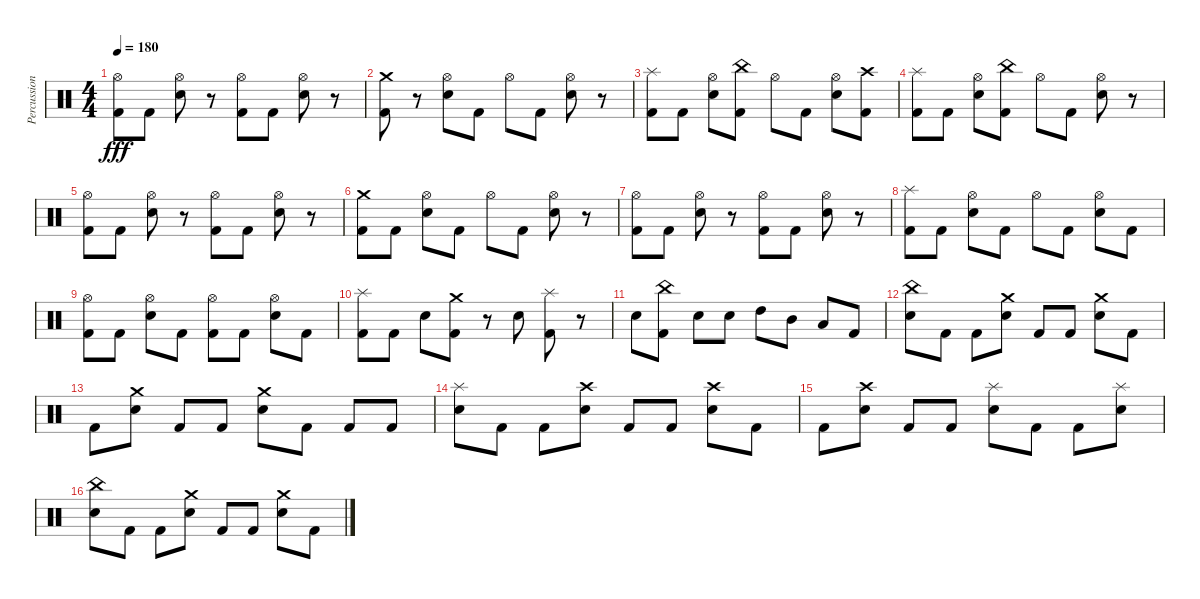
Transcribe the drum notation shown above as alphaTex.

\track ("Percussion" "Percussion") {instrument percussion}
\staff {score}
\articulation defaults
\ts (4 4)
\tempo 180
\clef neutral
\ks c
("Hi-Hat (open)" "Kick (hit) 2").8{dy fff} "Kick (hit) 2".8 ("Hi-Hat (open)" "Snare (hit) 2").8 r.8 ("Hi-Hat (open)" "Kick (hit) 2").8 "Kick (hit) 2".8 ("Hi-Hat (open)" "Snare (hit) 2").8 r.8 |
("Kick (hit) 2" "Crash medium (hit)").8 r.8 ("Hi-Hat (open)" "Snare (hit) 2").8 "Kick (hit) 2".8 "Hi-Hat (open)".8 "Kick (hit) 2".8 ("Hi-Hat (open)" "Snare (hit) 2").8 r.8 |
("Kick (hit) 2" "Splash (hit)").8 "Kick (hit) 2".8 ("Hi-Hat (open)" "Snare (hit) 2").8 ("Kick (hit) 2" "China (hit)").8 "Hi-Hat (open)".8 "Kick (hit) 2".8 ("Hi-Hat (open)" "Snare (hit) 2").8 ("Kick (hit) 2" "Crash high (hit)").8 |
("Kick (hit) 2" "Splash (hit)").8 "Kick (hit) 2".8 ("Hi-Hat (open)" "Snare (hit) 2").8 ("Kick (hit) 2" "China (hit)").8 "Hi-Hat (open)".8 "Kick (hit) 2".8 ("Hi-Hat (open)" "Snare (hit) 2").8 r.8 |
("Hi-Hat (open)" "Kick (hit) 2").8 "Kick (hit) 2".8 ("Hi-Hat (open)" "Snare (hit) 2").8 r.8 ("Hi-Hat (open)" "Kick (hit) 2").8 "Kick (hit) 2".8 ("Hi-Hat (open)" "Snare (hit) 2").8 r.8 |
("Kick (hit) 2" "Crash medium (hit)").8 "Kick (hit) 2".8 ("Hi-Hat (open)" "Snare (hit) 2").8 "Kick (hit) 2".8 "Hi-Hat (open)".8 "Kick (hit) 2".8 ("Hi-Hat (open)" "Snare (hit) 2").8 r.8 |
("Hi-Hat (open)" "Kick (hit) 2").8 "Kick (hit) 2".8 ("Hi-Hat (open)" "Snare (hit) 2").8 r.8 ("Hi-Hat (open)" "Kick (hit) 2").8 "Kick (hit) 2".8 ("Hi-Hat (open)" "Snare (hit) 2").8 r.8 |
("Kick (hit) 2" "Splash (hit)").8 "Kick (hit) 2".8 ("Hi-Hat (open)" "Snare (hit) 2").8 "Kick (hit) 2".8 "Hi-Hat (open)".8 "Kick (hit) 2".8 ("Hi-Hat (open)" "Snare (hit) 2").8 "Kick (hit) 2".8 |
("Hi-Hat (open)" "Kick (hit) 2").8 "Kick (hit) 2".8 ("Hi-Hat (open)" "Snare (hit) 2").8 "Kick (hit) 2".8 ("Hi-Hat (open)" "Kick (hit) 2").8 "Kick (hit) 2".8 ("Hi-Hat (open)" "Snare (hit) 2").8 "Kick (hit) 2".8 |
("Kick (hit) 2" "Splash (hit)").8 "Kick (hit) 2".8 "Snare (hit) 2".8 ("Kick (hit) 2" "Crash medium (hit)").8 r.8 "Snare (hit) 2".8 ("Kick (hit) 2" "Splash (hit)").8 r.8 |
"Snare (hit) 2".8 ("Kick (hit) 2" "China (hit)").8 "Snare (hit) 2".8 "Snare (hit) 2".8 "High Tom (hit)".8 "Mid Tom (hit)".8 "Low Tom (hit)".8 "Kick (hit) 2".8 |
("Snare (hit) 2" "China (hit)").8 "Kick (hit) 2".8 "Kick (hit) 2".8 ("Snare (hit) 2" "Crash medium (hit)").8 "Kick (hit) 2".8 "Kick (hit) 2".8 ("Snare (hit) 2" "Crash medium (hit)").8 "Kick (hit) 2".8 |
"Kick (hit) 2".8 ("Snare (hit) 2" "Crash medium (hit)").8 "Kick (hit) 2".8 "Kick (hit) 2".8 ("Snare (hit) 2" "Crash medium (hit)").8 "Kick (hit) 2".8 "Kick (hit) 2".8 "Kick (hit) 2".8 |
("Snare (hit) 2" "Splash (hit)").8 "Kick (hit) 2".8 "Kick (hit) 2".8 ("Snare (hit) 2" "Crash high (hit)").8 "Kick (hit) 2".8 "Kick (hit) 2".8 ("Snare (hit) 2" "Crash high (hit)").8 "Kick (hit) 2".8 |
"Kick (hit) 2".8 ("Snare (hit) 2" "Crash high (hit)").8 "Kick (hit) 2".8 "Kick (hit) 2".8 ("Snare (hit) 2" "Splash (hit)").8 "Kick (hit) 2".8 "Kick (hit) 2".8 ("Snare (hit) 2" "Splash (hit)").8 |
("Snare (hit) 2" "China (hit)").8 "Kick (hit) 2".8 "Kick (hit) 2".8 ("Snare (hit) 2" "Crash medium (hit)").8 "Kick (hit) 2".8 "Kick (hit) 2".8 ("Snare (hit) 2" "Crash medium (hit)").8 "Kick (hit) 2".8
